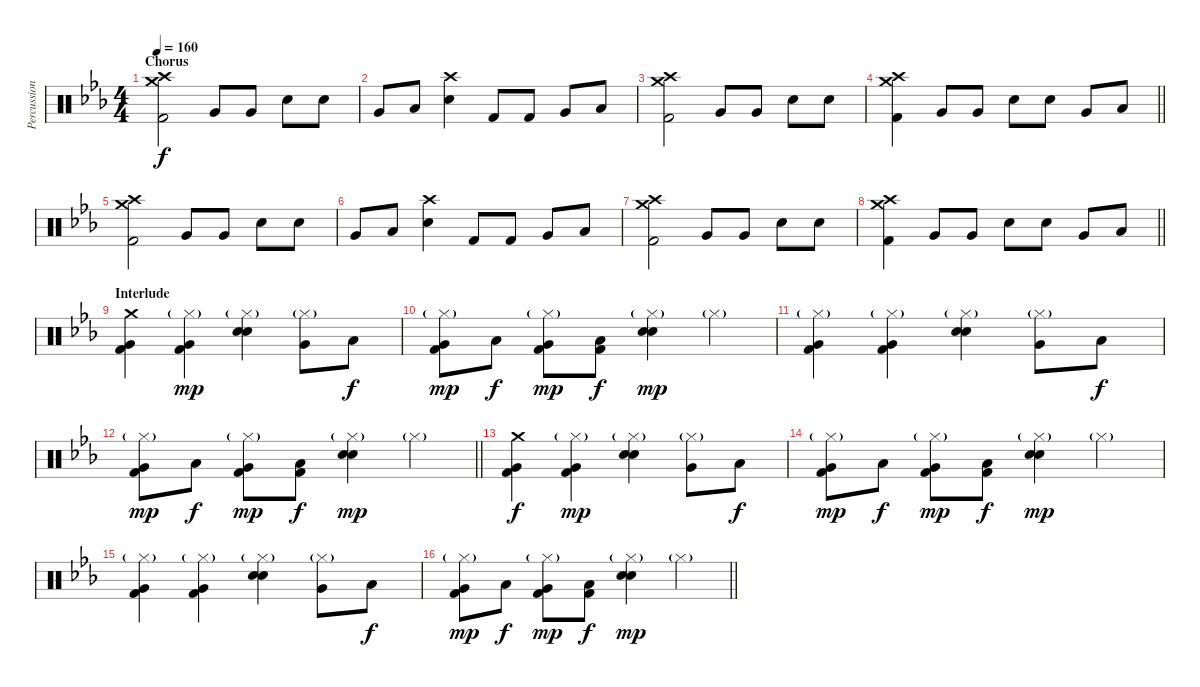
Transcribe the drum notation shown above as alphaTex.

\track ("Percussion" "Percussion") {instrument percussion}
\staff {score}
\articulation defaults
\ts (4 4)
\section ("" "Chorus")
\tempo 160
\clef neutral
\ks eb
("Crash high (hit)" "Crash medium (hit)" "Kick (hit) 2").2{dy f} "Very Low Tom (hit)".8 "Very Low Tom (hit)".8 "Snare (hit) 2".8 "Snare (hit) 2".8 |
"Very Low Tom (hit)".8 "Low Floor Tom (hit)".8 ("Crash high (hit)" "Snare (hit) 2").4 "Kick (hit) 2".8 "Kick (hit) 2".8 "Very Low Tom (hit)".8 "Low Floor Tom (hit)".8 |
("Crash high (hit)" "Crash medium (hit)" "Kick (hit) 2").2 "Very Low Tom (hit)".8 "Very Low Tom (hit)".8 "Snare (hit) 2".8 "Snare (hit) 2".8 |
\barLineRight lightlight
("Crash high (hit)" "Crash medium (hit)" "Kick (hit) 2").4 "Very Low Tom (hit)".8 "Very Low Tom (hit)".8 "Snare (hit) 2".8 "Snare (hit) 2".8 "Very Low Tom (hit)".8 "Low Floor Tom (hit)".8 |
\section ("" "")
("Crash high (hit)" "Crash medium (hit)" "Kick (hit) 2").2 "Very Low Tom (hit)".8 "Very Low Tom (hit)".8 "Snare (hit) 2".8 "Snare (hit) 2".8 |
"Very Low Tom (hit)".8 "Low Floor Tom (hit)".8 ("Crash high (hit)" "Snare (hit) 2").4 "Kick (hit) 2".8 "Kick (hit) 2".8 "Very Low Tom (hit)".8 "Low Floor Tom (hit)".8 |
("Crash high (hit)" "Crash medium (hit)" "Kick (hit) 2").2 "Very Low Tom (hit)".8 "Very Low Tom (hit)".8 "Snare (hit) 2".8 "Snare (hit) 2".8 |
\barLineRight lightlight
("Crash high (hit)" "Crash medium (hit)" "Kick (hit) 2").4 "Very Low Tom (hit)".8 "Very Low Tom (hit)".8 "Snare (hit) 2".8 "Snare (hit) 2".8 "Very Low Tom (hit)".8 "Low Floor Tom (hit)".8 |
\section ("" "Interlude")
("Crash medium (hit)" "Very Low Tom (hit)" "Kick (hit) 2").4 ("Hi-Hat (closed)"{g} "Very Low Tom (hit)" "Kick (hit) 2").4{dy mp} ("Hi-Hat (closed)"{g} "Snare (hit) 2" "Electric Snare (hit)").4 ("Hi-Hat (closed)"{g} "Very Low Tom (hit)").8 "Low Floor Tom (hit)".8{dy f} |
("Hi-Hat (closed)"{g} "Very Low Tom (hit)" "Kick (hit) 2").8{dy mp} "Low Floor Tom (hit)".8{dy f} ("Hi-Hat (closed)"{g} "Very Low Tom (hit)" "Kick (hit) 2").8{dy mp} ("Low Floor Tom (hit)" "Kick (hit) 2").8{dy f} ("Hi-Hat (closed)"{g} "Snare (hit) 2" "Electric Snare (hit)").4{dy mp} "Hi-Hat (closed)"{g}.4 |
("Hi-Hat (closed)"{g} "Very Low Tom (hit)" "Kick (hit) 2").4 ("Hi-Hat (closed)"{g} "Very Low Tom (hit)" "Kick (hit) 2").4 ("Hi-Hat (closed)"{g} "Snare (hit) 2" "Electric Snare (hit)").4 ("Hi-Hat (closed)"{g} "Very Low Tom (hit)").8 "Low Floor Tom (hit)".8{dy f} |
\barLineRight lightlight
("Hi-Hat (closed)"{g} "Very Low Tom (hit)" "Kick (hit) 2").8{dy mp} "Low Floor Tom (hit)".8{dy f} ("Hi-Hat (closed)"{g} "Very Low Tom (hit)" "Kick (hit) 2").8{dy mp} ("Low Floor Tom (hit)" "Kick (hit) 2").8{dy f} ("Hi-Hat (closed)"{g} "Snare (hit) 2" "Electric Snare (hit)").4{dy mp} "Hi-Hat (closed)"{g}.4 |
\section ("" "")
("Crash medium (hit)" "Very Low Tom (hit)" "Kick (hit) 2").4{dy f} ("Hi-Hat (closed)"{g} "Very Low Tom (hit)" "Kick (hit) 2").4{dy mp} ("Hi-Hat (closed)"{g} "Snare (hit) 2" "Electric Snare (hit)").4 ("Hi-Hat (closed)"{g} "Very Low Tom (hit)").8 "Low Floor Tom (hit)".8{dy f} |
("Hi-Hat (closed)"{g} "Very Low Tom (hit)" "Kick (hit) 2").8{dy mp} "Low Floor Tom (hit)".8{dy f} ("Hi-Hat (closed)"{g} "Very Low Tom (hit)" "Kick (hit) 2").8{dy mp} ("Low Floor Tom (hit)" "Kick (hit) 2").8{dy f} ("Hi-Hat (closed)"{g} "Snare (hit) 2" "Electric Snare (hit)").4{dy mp} "Hi-Hat (closed)"{g}.4 |
("Hi-Hat (closed)"{g} "Very Low Tom (hit)" "Kick (hit) 2").4 ("Hi-Hat (closed)"{g} "Very Low Tom (hit)" "Kick (hit) 2").4 ("Hi-Hat (closed)"{g} "Snare (hit) 2" "Electric Snare (hit)").4 ("Hi-Hat (closed)"{g} "Very Low Tom (hit)").8 "Low Floor Tom (hit)".8{dy f} |
\barLineRight lightlight
("Hi-Hat (closed)"{g} "Very Low Tom (hit)" "Kick (hit) 2").8{dy mp} "Low Floor Tom (hit)".8{dy f} ("Hi-Hat (closed)"{g} "Very Low Tom (hit)" "Kick (hit) 2").8{dy mp} ("Low Floor Tom (hit)" "Kick (hit) 2").8{dy f} ("Hi-Hat (closed)"{g} "Snare (hit) 2" "Electric Snare (hit)").4{dy mp} "Hi-Hat (closed)"{g}.4
